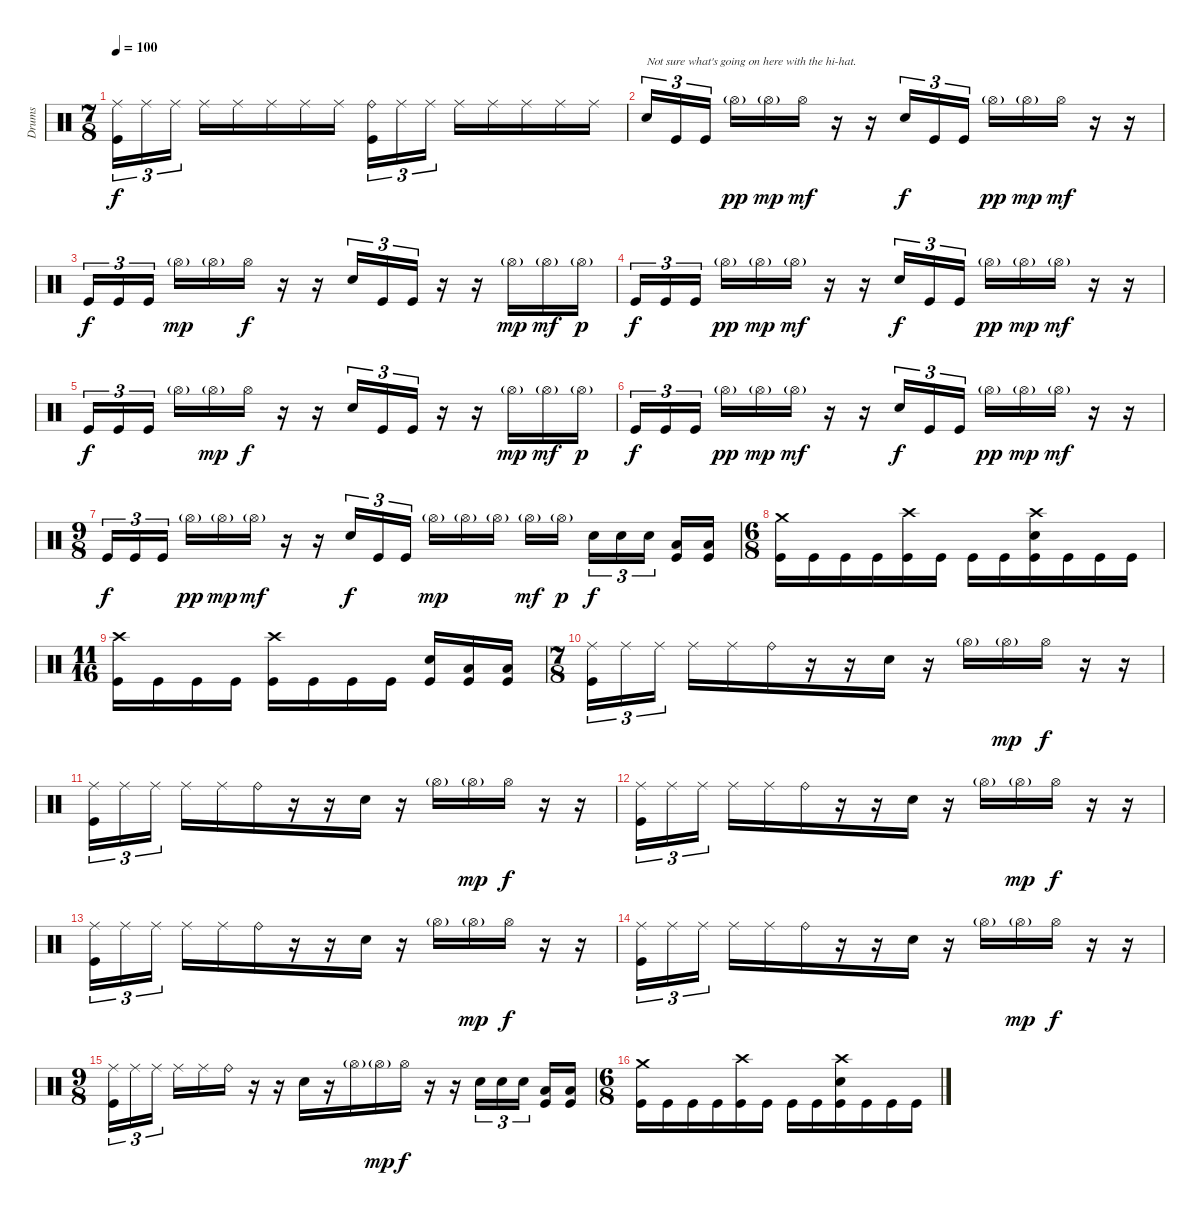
\track ("Drums" "Drums") {instrument percussion}
\staff {score}
\articulation defaults
\ts (7 8)
\tempo 100
\clef neutral
\ks c
("Ride (middle)" "Kick (hit)").16{tu (3 2) dy f} "Ride (middle)".16{tu (3 2)} "Ride (middle)".16{tu (3 2)} "Ride (middle)".16 "Ride (middle)".16 "Ride (middle)".16 "Ride (middle)".16 "Ride (middle)".16{beam splitsecondary} ("Ride (bell)" "Kick (hit)").16{tu (3 2)} "Ride (middle)".16{tu (3 2)} "Ride (middle)".16{tu (3 2)} "Ride (middle)".16 "Ride (middle)".16 "Ride (middle)".16 "Ride (middle)".16 "Ride (middle)".16 |
"Electric Snare (hit)".16{tu (3 2) txt "Not sure what's going on here with the hi-hat."} "Kick (hit)".16{tu (3 2)} "Kick (hit)".16{tu (3 2)} "Hi-Hat (open)"{g}.16{dy pp} "Hi-Hat (open)"{g}.16{dy mp} "Hi-Hat (open)".16{dy mf} r.16 r.16 "Electric Snare (hit)".16{tu (3 2) dy f} "Kick (hit)".16{tu (3 2)} "Kick (hit)".16{tu (3 2)} "Hi-Hat (open)"{g}.16{dy pp} "Hi-Hat (open)"{g}.16{dy mp} "Hi-Hat (open)".16{dy mf} r.16 r.16 |
"Kick (hit)".16{tu (3 2) dy f} "Kick (hit)".16{tu (3 2)} "Kick (hit)".16{tu (3 2)} "Hi-Hat (open)"{g}.16{dy mp} "Hi-Hat (open)"{g}.16 "Hi-Hat (open)".16{dy f} r.16 r.16 "Electric Snare (hit)".16{tu (3 2)} "Kick (hit)".16{tu (3 2)} "Kick (hit)".16{tu (3 2)} r.16 r.16 "Hi-Hat (open)"{g}.16{dy mp} "Hi-Hat (open)"{g}.16{dy mf} "Hi-Hat (open)"{g}.16{dy p} |
"Kick (hit)".16{tu (3 2) dy f} "Kick (hit)".16{tu (3 2)} "Kick (hit)".16{tu (3 2)} "Hi-Hat (open)"{g}.16{dy pp} "Hi-Hat (open)"{g}.16{dy mp} "Hi-Hat (open)"{g}.16{dy mf} r.16 r.16 "Electric Snare (hit)".16{tu (3 2) dy f} "Kick (hit)".16{tu (3 2)} "Kick (hit)".16{tu (3 2)} "Hi-Hat (open)"{g}.16{dy pp} "Hi-Hat (open)"{g}.16{dy mp} "Hi-Hat (open)"{g}.16{dy mf} r.16 r.16 |
"Kick (hit)".16{tu (3 2) dy f} "Kick (hit)".16{tu (3 2)} "Kick (hit)".16{tu (3 2)} "Hi-Hat (open)"{g}.16 "Hi-Hat (open)"{g}.16{dy mp} "Hi-Hat (open)".16{dy f} r.16 r.16 "Electric Snare (hit)".16{tu (3 2)} "Kick (hit)".16{tu (3 2)} "Kick (hit)".16{tu (3 2)} r.16 r.16 "Hi-Hat (open)"{g}.16{dy mp} "Hi-Hat (open)"{g}.16{dy mf} "Hi-Hat (open)"{g}.16{dy p} |
"Kick (hit)".16{tu (3 2) dy f} "Kick (hit)".16{tu (3 2)} "Kick (hit)".16{tu (3 2)} "Hi-Hat (open)"{g}.16{dy pp} "Hi-Hat (open)"{g}.16{dy mp} "Hi-Hat (open)"{g}.16{dy mf} r.16 r.16 "Electric Snare (hit)".16{tu (3 2) dy f} "Kick (hit)".16{tu (3 2)} "Kick (hit)".16{tu (3 2)} "Hi-Hat (open)"{g}.16{dy pp} "Hi-Hat (open)"{g}.16{dy mp} "Hi-Hat (open)"{g}.16{dy mf} r.16 r.16 |
\ts (9 8)
"Kick (hit)".16{tu (3 2) dy f} "Kick (hit)".16{tu (3 2)} "Kick (hit)".16{tu (3 2) beam splitsecondary} "Hi-Hat (open)"{g}.16{dy pp} "Hi-Hat (open)"{g}.16{dy mp} "Hi-Hat (open)"{g}.16{dy mf} r.16 r.16 "Electric Snare (hit)".16{tu (3 2) dy f} "Kick (hit)".16{tu (3 2)} "Kick (hit)".16{tu (3 2) beam splitsecondary} "Hi-Hat (open)"{g}.16{dy mp} "Hi-Hat (open)"{g}.16 "Hi-Hat (open)"{g}.16 "Hi-Hat (open)"{g}.16{dy mf} "Hi-Hat (open)"{g}.16{dy p beam splitsecondary} "Electric Snare (hit)".16{tu (3 2) dy f} "Electric Snare (hit)".16{tu (3 2)} "Electric Snare (hit)".16{tu (3 2) beam splitsecondary} ("Low Tom (hit)" "Kick (hit)").16 ("Low Floor Tom (hit)" "Kick (hit)").16 |
\ts (6 8)
("Crash medium (hit)" "Kick (hit)").16 "Kick (hit)".16 "Kick (hit)".16 "Kick (hit)".16 ("Crash high (hit)" "Kick (hit)").16 "Kick (hit)".16 "Kick (hit)".16 "Kick (hit)".16 ("Crash high (hit)" "Electric Snare (hit)" "Kick (hit)").16 "Kick (hit)".16 "Kick (hit)".16 "Kick (hit)".16 |
\ts (11 16)
("Crash high (hit)" "Kick (hit)").16 "Kick (hit)".16 "Kick (hit)".16 "Kick (hit)".16 ("Crash high (hit)" "Kick (hit)").16 "Kick (hit)".16 "Kick (hit)".16 "Kick (hit)".16 ("Electric Snare (hit)" "Kick (hit)").16 ("Low Tom (hit)" "Kick (hit)").16 ("Low Floor Tom (hit)" "Kick (hit)").16 |
\ts (7 8)
("Ride (middle)" "Kick (hit)").16{tu (3 2)} "Ride (middle)".16{tu (3 2)} "Ride (middle)".16{tu (3 2)} "Ride (middle)".16 "Ride (middle)".16 "Ride (bell)".16 r.16 r.16 "Electric Snare (hit)".16 r.16 "Hi-Hat (open)"{g}.16 "Hi-Hat (open)"{g}.16{dy mp} "Hi-Hat (open)".16{dy f} r.16 r.16 |
("Ride (middle)" "Kick (hit)").16{tu (3 2)} "Ride (middle)".16{tu (3 2)} "Ride (middle)".16{tu (3 2)} "Ride (middle)".16 "Ride (middle)".16 "Ride (bell)".16 r.16 r.16 "Electric Snare (hit)".16 r.16 "Hi-Hat (open)"{g}.16 "Hi-Hat (open)"{g}.16{dy mp} "Hi-Hat (open)".16{dy f} r.16 r.16 |
("Ride (middle)" "Kick (hit)").16{tu (3 2)} "Ride (middle)".16{tu (3 2)} "Ride (middle)".16{tu (3 2)} "Ride (middle)".16 "Ride (middle)".16 "Ride (bell)".16 r.16 r.16 "Electric Snare (hit)".16 r.16 "Hi-Hat (open)"{g}.16 "Hi-Hat (open)"{g}.16{dy mp} "Hi-Hat (open)".16{dy f} r.16 r.16 |
("Ride (middle)" "Kick (hit)").16{tu (3 2)} "Ride (middle)".16{tu (3 2)} "Ride (middle)".16{tu (3 2)} "Ride (middle)".16 "Ride (middle)".16 "Ride (bell)".16 r.16 r.16 "Electric Snare (hit)".16 r.16 "Hi-Hat (open)"{g}.16 "Hi-Hat (open)"{g}.16{dy mp} "Hi-Hat (open)".16{dy f} r.16 r.16 |
("Ride (middle)" "Kick (hit)").16{tu (3 2)} "Ride (middle)".16{tu (3 2)} "Ride (middle)".16{tu (3 2)} "Ride (middle)".16 "Ride (middle)".16 "Ride (bell)".16 r.16 r.16 "Electric Snare (hit)".16 r.16 "Hi-Hat (open)"{g}.16 "Hi-Hat (open)"{g}.16{dy mp} "Hi-Hat (open)".16{dy f} r.16 r.16 |
\ts (9 8)
("Ride (middle)" "Kick (hit)").16{tu (3 2)} "Ride (middle)".16{tu (3 2)} "Ride (middle)".16{tu (3 2) beam splitsecondary} "Ride (middle)".16 "Ride (middle)".16 "Ride (bell)".16 r.16 r.16 "Electric Snare (hit)".16 r.16 "Hi-Hat (open)"{g}.16 "Hi-Hat (open)"{g}.16{dy mp} "Hi-Hat (open)".16{dy f} r.16 r.16 "Electric Snare (hit)".16{tu (3 2)} "Electric Snare (hit)".16{tu (3 2)} "Electric Snare (hit)".16{tu (3 2) beam splitsecondary} ("Low Tom (hit)" "Kick (hit)").16 ("Low Floor Tom (hit)" "Kick (hit)").16 |
\ts (6 8)
("Crash medium (hit)" "Kick (hit)").16 "Kick (hit)".16 "Kick (hit)".16 "Kick (hit)".16 ("Crash high (hit)" "Kick (hit)").16 "Kick (hit)".16 "Kick (hit)".16 "Kick (hit)".16 ("Crash high (hit)" "Electric Snare (hit)" "Kick (hit)").16 "Kick (hit)".16 "Kick (hit)".16 "Kick (hit)".16
